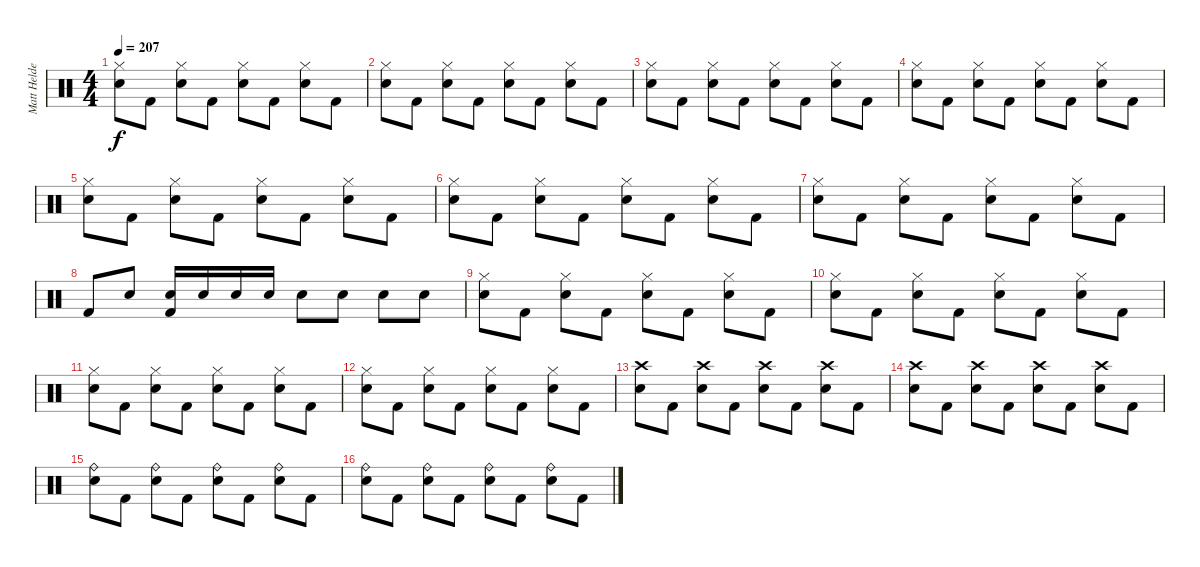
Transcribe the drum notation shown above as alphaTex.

\track ("Matt Helders - Drums" "Matt Helde") {instrument percussion}
\staff {score}
\articulation defaults
\ts (4 4)
\tempo 207
\clef neutral
\ks c
("Hi-Hat (closed)" "Electric Snare (hit)").8{dy f} "Kick (hit) 2".8 ("Hi-Hat (closed)" "Electric Snare (hit)").8 "Kick (hit) 2".8 ("Hi-Hat (closed)" "Electric Snare (hit)").8 "Kick (hit) 2".8 ("Hi-Hat (closed)" "Electric Snare (hit)").8 "Kick (hit) 2".8 |
("Hi-Hat (closed)" "Electric Snare (hit)").8 "Kick (hit) 2".8 ("Hi-Hat (closed)" "Electric Snare (hit)").8 "Kick (hit) 2".8 ("Hi-Hat (closed)" "Electric Snare (hit)").8 "Kick (hit) 2".8 ("Hi-Hat (closed)" "Electric Snare (hit)").8 "Kick (hit) 2".8 |
("Hi-Hat (closed)" "Electric Snare (hit)").8 "Kick (hit) 2".8 ("Hi-Hat (closed)" "Electric Snare (hit)").8 "Kick (hit) 2".8 ("Hi-Hat (closed)" "Electric Snare (hit)").8 "Kick (hit) 2".8 ("Hi-Hat (closed)" "Electric Snare (hit)").8 "Kick (hit) 2".8 |
("Hi-Hat (closed)" "Electric Snare (hit)").8 "Kick (hit) 2".8 ("Hi-Hat (closed)" "Electric Snare (hit)").8 "Kick (hit) 2".8 ("Hi-Hat (closed)" "Electric Snare (hit)").8 "Kick (hit) 2".8 ("Hi-Hat (closed)" "Electric Snare (hit)").8 "Kick (hit) 2".8 |
("Hi-Hat (closed)" "Electric Snare (hit)").8 "Kick (hit) 2".8 ("Hi-Hat (closed)" "Electric Snare (hit)").8 "Kick (hit) 2".8 ("Hi-Hat (closed)" "Electric Snare (hit)").8 "Kick (hit) 2".8 ("Hi-Hat (closed)" "Electric Snare (hit)").8 "Kick (hit) 2".8 |
("Hi-Hat (closed)" "Electric Snare (hit)").8 "Kick (hit) 2".8 ("Hi-Hat (closed)" "Electric Snare (hit)").8 "Kick (hit) 2".8 ("Hi-Hat (closed)" "Electric Snare (hit)").8 "Kick (hit) 2".8 ("Hi-Hat (closed)" "Electric Snare (hit)").8 "Kick (hit) 2".8 |
("Hi-Hat (closed)" "Electric Snare (hit)").8 "Kick (hit) 2".8 ("Hi-Hat (closed)" "Electric Snare (hit)").8 "Kick (hit) 2".8 ("Hi-Hat (closed)" "Electric Snare (hit)").8 "Kick (hit) 2".8 ("Hi-Hat (closed)" "Electric Snare (hit)").8 "Kick (hit) 2".8 |
"Kick (hit) 2".8 "Electric Snare (hit)".8 ("Electric Snare (hit)" "Kick (hit) 2").16 "Electric Snare (hit)".16 "Electric Snare (hit)".16 "Electric Snare (hit)".16 "Electric Snare (hit)".8 "Electric Snare (hit)".8 "Electric Snare (hit)".8 "Electric Snare (hit)".8 |
("Hi-Hat (closed)" "Electric Snare (hit)").8 "Kick (hit) 2".8 ("Hi-Hat (closed)" "Electric Snare (hit)").8 "Kick (hit) 2".8 ("Hi-Hat (closed)" "Electric Snare (hit)").8 "Kick (hit) 2".8 ("Hi-Hat (closed)" "Electric Snare (hit)").8 "Kick (hit) 2".8 |
("Hi-Hat (closed)" "Electric Snare (hit)").8 "Kick (hit) 2".8 ("Hi-Hat (closed)" "Electric Snare (hit)").8 "Kick (hit) 2".8 ("Hi-Hat (closed)" "Electric Snare (hit)").8 "Kick (hit) 2".8 ("Hi-Hat (closed)" "Electric Snare (hit)").8 "Kick (hit) 2".8 |
("Hi-Hat (closed)" "Electric Snare (hit)").8 "Kick (hit) 2".8 ("Hi-Hat (closed)" "Electric Snare (hit)").8 "Kick (hit) 2".8 ("Hi-Hat (closed)" "Electric Snare (hit)").8 "Kick (hit) 2".8 ("Hi-Hat (closed)" "Electric Snare (hit)").8 "Kick (hit) 2".8 |
("Hi-Hat (closed)" "Electric Snare (hit)").8 "Kick (hit) 2".8 ("Hi-Hat (closed)" "Electric Snare (hit)").8 "Kick (hit) 2".8 ("Hi-Hat (closed)" "Electric Snare (hit)").8 "Kick (hit) 2".8 ("Hi-Hat (closed)" "Electric Snare (hit)").8 "Kick (hit) 2".8 |
("Crash high (hit)" "Electric Snare (hit)").8 "Kick (hit) 2".8 ("Crash high (hit)" "Electric Snare (hit)").8 "Kick (hit) 2".8 ("Crash high (hit)" "Electric Snare (hit)").8 "Kick (hit) 2".8 ("Crash high (hit)" "Electric Snare (hit)").8 "Kick (hit) 2".8 |
("Crash high (hit)" "Electric Snare (hit)").8 "Kick (hit) 2".8 ("Crash high (hit)" "Electric Snare (hit)").8 "Kick (hit) 2".8 ("Crash high (hit)" "Electric Snare (hit)").8 "Kick (hit) 2".8 ("Crash high (hit)" "Electric Snare (hit)").8 "Kick (hit) 2".8 |
("Ride (bell)" "Electric Snare (hit)").8 "Kick (hit) 2".8 ("Ride (bell)" "Electric Snare (hit)").8 "Kick (hit) 2".8 ("Ride (bell)" "Electric Snare (hit)").8 "Kick (hit) 2".8 ("Ride (bell)" "Electric Snare (hit)").8 "Kick (hit) 2".8 |
("Ride (bell)" "Electric Snare (hit)").8 "Kick (hit) 2".8 ("Ride (bell)" "Electric Snare (hit)").8 "Kick (hit) 2".8 ("Ride (bell)" "Electric Snare (hit)").8 "Kick (hit) 2".8 ("Ride (bell)" "Electric Snare (hit)").8 "Kick (hit) 2".8
